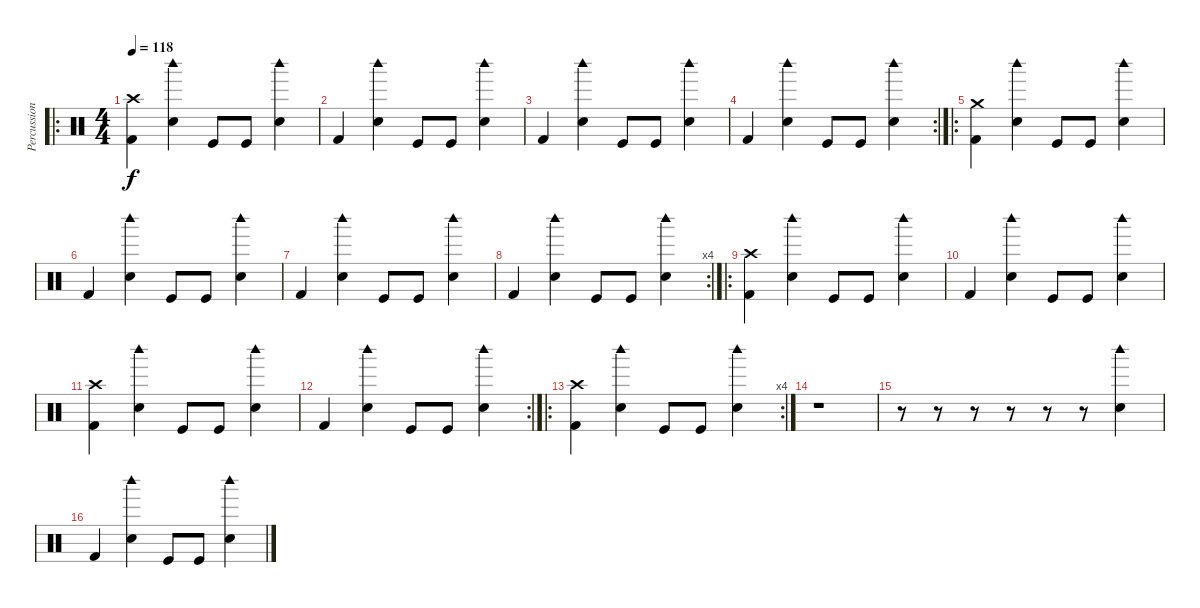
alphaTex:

\track ("Percussion" "Percussion") {instrument percussion}
\staff {score}
\articulation defaults
\ro
\ts (4 4)
\tempo 118
\clef neutral
\ks c
("Crash high (hit)" "Kick (hit) 2").4{dy f} ("Woodblock high (hit)" "Snare (hit) 2").4 "Kick (hit)".8 "Kick (hit)".8 ("Woodblock high (hit)" "Snare (hit) 2").4 |
"Kick (hit) 2".4 ("Woodblock high (hit)" "Snare (hit) 2").4 "Kick (hit)".8 "Kick (hit)".8 ("Woodblock high (hit)" "Snare (hit) 2").4 |
"Kick (hit) 2".4 ("Woodblock high (hit)" "Snare (hit) 2").4 "Kick (hit)".8 "Kick (hit)".8 ("Woodblock high (hit)" "Snare (hit) 2").4 |
\rc 2 "Kick (hit) 2".4
("Woodblock high (hit)" "Snare (hit) 2").4 "Kick (hit)".8 "Kick (hit)".8 ("Woodblock high (hit)" "Snare (hit) 2").4 |
\ro
("Crash medium (hit)" "Kick (hit) 2").4 ("Woodblock high (hit)" "Snare (hit) 2").4 "Kick (hit)".8 "Kick (hit)".8 ("Woodblock high (hit)" "Snare (hit) 2").4 |
"Kick (hit) 2".4 ("Woodblock high (hit)" "Snare (hit) 2").4 "Kick (hit)".8 "Kick (hit)".8 ("Woodblock high (hit)" "Snare (hit) 2").4 |
"Kick (hit) 2".4 ("Woodblock high (hit)" "Snare (hit) 2").4 "Kick (hit)".8 "Kick (hit)".8 ("Woodblock high (hit)" "Snare (hit) 2").4 |
\rc 4 "Kick (hit) 2".4
("Woodblock high (hit)" "Snare (hit) 2").4 "Kick (hit)".8 "Kick (hit)".8 ("Woodblock high (hit)" "Snare (hit) 2").4 |
\ro
("Crash high (hit)" "Kick (hit) 2").4 ("Woodblock high (hit)" "Snare (hit) 2").4 "Kick (hit)".8 "Kick (hit)".8 ("Woodblock high (hit)" "Snare (hit) 2").4 |
"Kick (hit) 2".4 ("Woodblock high (hit)" "Snare (hit) 2").4 "Kick (hit)".8 "Kick (hit)".8 ("Woodblock high (hit)" "Snare (hit) 2").4 |
("Crash high (hit)" "Kick (hit) 2").4 ("Woodblock high (hit)" "Snare (hit) 2").4 "Kick (hit)".8 "Kick (hit)".8 ("Woodblock high (hit)" "Snare (hit) 2").4 |
\rc 2 "Kick (hit) 2".4
("Woodblock high (hit)" "Snare (hit) 2").4 "Kick (hit)".8 "Kick (hit)".8 ("Woodblock high (hit)" "Snare (hit) 2").4 |
\ro
\rc 4
("Crash high (hit)" "Kick (hit) 2").4 ("Woodblock high (hit)" "Snare (hit) 2").4 "Kick (hit)".8 "Kick (hit)".8 ("Woodblock high (hit)" "Snare (hit) 2").4 |
r.1 |
r.8 r.8 r.8 r.8 r.8 r.8 ("Snare (hit) 2" "Woodblock high (hit)").4 |
"Kick (hit) 2".4 ("Woodblock high (hit)" "Snare (hit) 2").4 "Kick (hit)".8 "Kick (hit)".8 ("Woodblock high (hit)" "Snare (hit) 2").4
